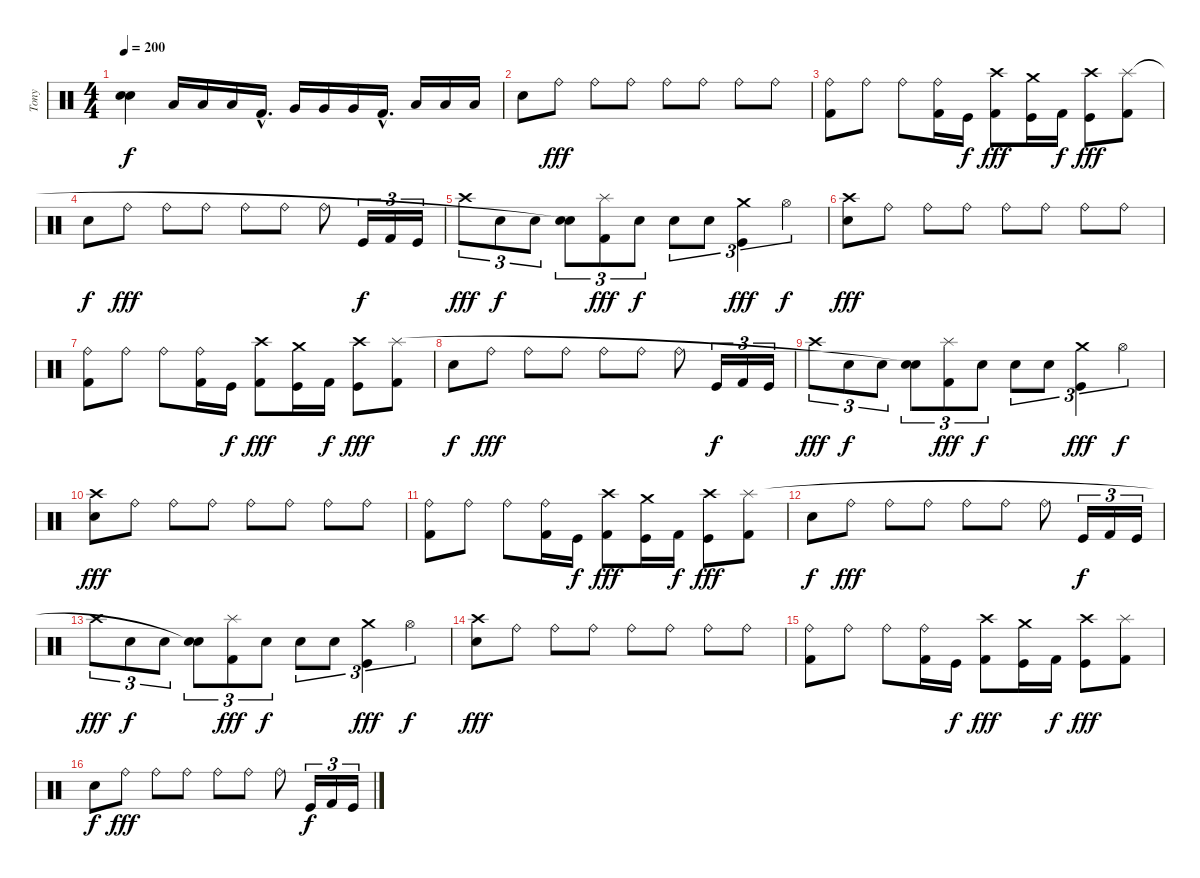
\track ("Tony" "Tony") {instrument percussion}
\staff {score}
\articulation defaults
\ts (4 4)
\tempo 200
\clef neutral
\ks c
("Snare (hit)"{t} "Snare (hit)"{t}).4{dy f} "Low Tom (hit)".16 "Low Tom (hit)".16 "Low Tom (hit)".16 "Kick (hit) 2"{hac}.16{d} "Very Low Tom (hit)".16 "Very Low Tom (hit)".16 "Very Low Tom (hit)".16 "Kick (hit) 2"{hac}.16{d} "Low Floor Tom (hit)".16 "Low Floor Tom (hit)".16 "Low Floor Tom (hit)".16 |
"Snare (hit) 2".8 "Ride (bell)".8{dy fff} "Ride (bell)".8 "Ride (bell)".8 "Ride (bell)".8 "Ride (bell)".8 "Ride (bell)".8 "Ride (bell)".8 |
("Kick (hit) 2" "Ride (bell)").8 "Ride (bell)".8 "Ride (bell)".8 ("Kick (hit) 2" "Ride (bell)").16 "Kick (hit)".16{dy f} ("Kick (hit) 2" "Crash high (hit)").8{dy fff} ("Kick (hit)" "Crash medium (hit)").16 "Kick (hit) 2".16{dy f} ("Kick (hit)" "Crash high (hit)").8{dy fff} ("Kick (hit) 2" "Splash (hit)").8 |
"Snare (hit) 2".8{dy f} "Ride (bell)".8{dy fff} "Ride (bell)".8 "Ride (bell)".8 "Ride (bell)".8 "Ride (bell)".8 "Ride (bell)".8 "Kick (hit)".16{tu (3 2) dy f} "Kick (hit) 2".16{tu (3 2)} "Kick (hit)".16{tu (3 2)} |
"Crash high (hit)".8{tu (3 2) dy fff} "Snare (hit) 2".8{tu (3 2) dy f} "Snare (hit) 2".8{tu (3 2)} ("Snare (hit) 2" "Snare (hit)"{t}).8{tu (3 2)} ("Kick (hit) 2" "Splash (hit)").8{tu (3 2) dy fff} "Snare (hit) 2".8{tu (3 2) dy f} "Snare (hit) 2".8{tu (3 2)} "Snare (hit) 2".8{tu (3 2)} ("Kick (hit)" "Crash medium (hit)").4{tu (3 2) dy fff} "Hi-Hat (open)".4{tu (3 2) dy f} |
("Snare (hit) 2" "Crash high (hit)").8{dy fff} "Ride (bell)".8 "Ride (bell)".8 "Ride (bell)".8 "Ride (bell)".8 "Ride (bell)".8 "Ride (bell)".8 "Ride (bell)".8 |
("Kick (hit) 2" "Ride (bell)").8 "Ride (bell)".8 "Ride (bell)".8 ("Kick (hit) 2" "Ride (bell)").16 "Kick (hit)".16{dy f} ("Kick (hit) 2" "Crash high (hit)").8{dy fff} ("Kick (hit)" "Crash medium (hit)").16 "Kick (hit) 2".16{dy f} ("Kick (hit)" "Crash high (hit)").8{dy fff} ("Kick (hit) 2" "Splash (hit)").8 |
"Snare (hit) 2".8{dy f} "Ride (bell)".8{dy fff} "Ride (bell)".8 "Ride (bell)".8 "Ride (bell)".8 "Ride (bell)".8 "Ride (bell)".8 "Kick (hit)".16{tu (3 2) dy f} "Kick (hit) 2".16{tu (3 2)} "Kick (hit)".16{tu (3 2)} |
"Crash high (hit)".8{tu (3 2) dy fff} "Snare (hit) 2".8{tu (3 2) dy f} "Snare (hit) 2".8{tu (3 2)} ("Snare (hit) 2" "Snare (hit)"{t}).8{tu (3 2)} ("Kick (hit) 2" "Splash (hit)").8{tu (3 2) dy fff} "Snare (hit) 2".8{tu (3 2) dy f} "Snare (hit) 2".8{tu (3 2)} "Snare (hit) 2".8{tu (3 2)} ("Kick (hit)" "Crash medium (hit)").4{tu (3 2) dy fff} "Hi-Hat (open)".4{tu (3 2) dy f} |
("Snare (hit) 2" "Crash high (hit)").8{dy fff} "Ride (bell)".8 "Ride (bell)".8 "Ride (bell)".8 "Ride (bell)".8 "Ride (bell)".8 "Ride (bell)".8 "Ride (bell)".8 |
("Kick (hit) 2" "Ride (bell)").8 "Ride (bell)".8 "Ride (bell)".8 ("Kick (hit) 2" "Ride (bell)").16 "Kick (hit)".16{dy f} ("Kick (hit) 2" "Crash high (hit)").8{dy fff} ("Kick (hit)" "Crash medium (hit)").16 "Kick (hit) 2".16{dy f} ("Kick (hit)" "Crash high (hit)").8{dy fff} ("Kick (hit) 2" "Splash (hit)").8 |
"Snare (hit) 2".8{dy f} "Ride (bell)".8{dy fff} "Ride (bell)".8 "Ride (bell)".8 "Ride (bell)".8 "Ride (bell)".8 "Ride (bell)".8 "Kick (hit)".16{tu (3 2) dy f} "Kick (hit) 2".16{tu (3 2)} "Kick (hit)".16{tu (3 2)} |
"Crash high (hit)".8{tu (3 2) dy fff} "Snare (hit) 2".8{tu (3 2) dy f} "Snare (hit) 2".8{tu (3 2)} ("Snare (hit) 2" "Snare (hit)"{t}).8{tu (3 2)} ("Kick (hit) 2" "Splash (hit)").8{tu (3 2) dy fff} "Snare (hit) 2".8{tu (3 2) dy f} "Snare (hit) 2".8{tu (3 2)} "Snare (hit) 2".8{tu (3 2)} ("Kick (hit)" "Crash medium (hit)").4{tu (3 2) dy fff} "Hi-Hat (open)".4{tu (3 2) dy f} |
("Snare (hit) 2" "Crash high (hit)").8{dy fff} "Ride (bell)".8 "Ride (bell)".8 "Ride (bell)".8 "Ride (bell)".8 "Ride (bell)".8 "Ride (bell)".8 "Ride (bell)".8 |
("Kick (hit) 2" "Ride (bell)").8 "Ride (bell)".8 "Ride (bell)".8 ("Kick (hit) 2" "Ride (bell)").16 "Kick (hit)".16{dy f} ("Kick (hit) 2" "Crash high (hit)").8{dy fff} ("Kick (hit)" "Crash medium (hit)").16 "Kick (hit) 2".16{dy f} ("Kick (hit)" "Crash high (hit)").8{dy fff} ("Kick (hit) 2" "Splash (hit)").8 |
"Snare (hit) 2".8{dy f} "Ride (bell)".8{dy fff} "Ride (bell)".8 "Ride (bell)".8 "Ride (bell)".8 "Ride (bell)".8 "Ride (bell)".8 "Kick (hit)".16{tu (3 2) dy f} "Kick (hit) 2".16{tu (3 2)} "Kick (hit)".16{tu (3 2)}
